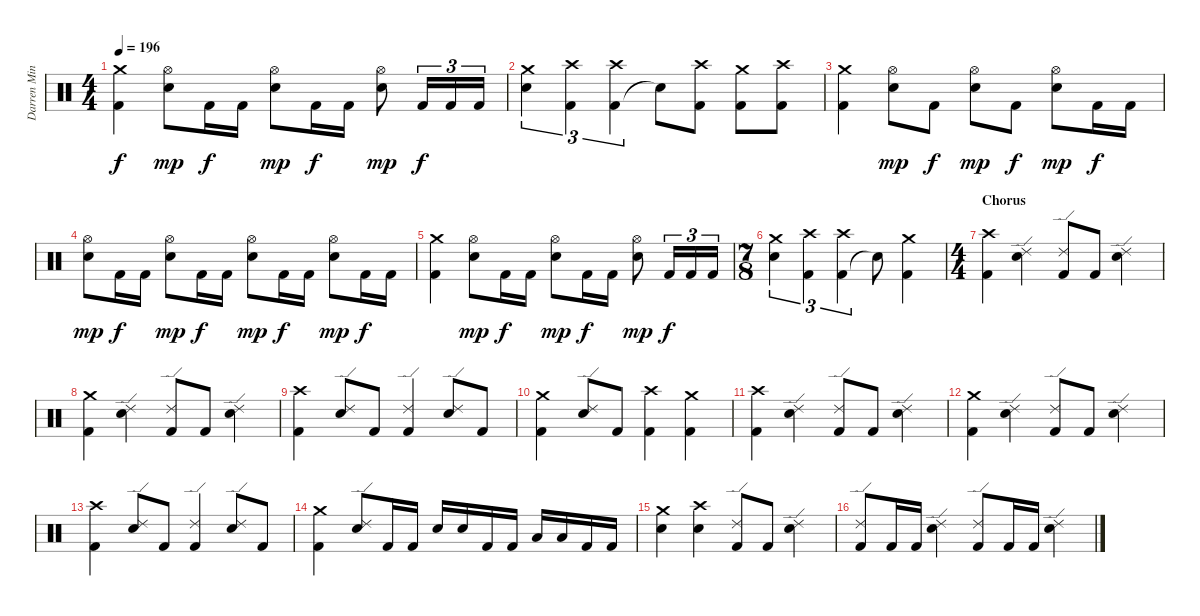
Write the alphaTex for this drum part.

\track ("Darren Minter" "Darren Min") {instrument percussion}
\staff {score}
\articulation defaults
\ts (4 4)
\tempo 196
\clef neutral
\ks c
("Kick (hit) 2" "Crash medium (hit)").4{dy f} ("Hi-Hat (open)" "Snare (hit) 2").8{dy mp} "Kick (hit) 2".16{dy f} "Kick (hit) 2".16 ("Hi-Hat (open)" "Snare (hit) 2").8{dy mp} "Kick (hit) 2".16{dy f} "Kick (hit) 2".16 ("Hi-Hat (open)" "Snare (hit) 2").8{dy mp} "Kick (hit) 2".16{tu (3 2) dy f} "Kick (hit) 2".16{tu (3 2)} "Kick (hit) 2".16{tu (3 2)} |
("Crash medium (hit)" "Snare (hit) 2").4{tu (3 2)} ("Kick (hit) 2" "Crash high (hit)").4{tu (3 2)} ("Kick (hit) 2" "Crash high (hit)").4{tu (3 2)} "Snare (hit)"{t}.8 ("Kick (hit) 2" "Crash high (hit)").8 ("Kick (hit) 2" "Crash medium (hit)").8 ("Kick (hit) 2" "Crash high (hit)").8 |
("Kick (hit) 2" "Crash medium (hit)").4 ("Hi-Hat (open)" "Snare (hit) 2").8{dy mp} "Kick (hit) 2".8{dy f} ("Hi-Hat (open)" "Snare (hit) 2").8{dy mp} "Kick (hit) 2".8{dy f} ("Hi-Hat (open)" "Snare (hit) 2").8{dy mp} "Kick (hit) 2".16{dy f} "Kick (hit) 2".16 |
("Hi-Hat (open)" "Snare (hit) 2").8{dy mp} "Kick (hit) 2".16{dy f} "Kick (hit) 2".16 ("Hi-Hat (open)" "Snare (hit) 2").8{dy mp} "Kick (hit) 2".16{dy f} "Kick (hit) 2".16 ("Hi-Hat (open)" "Snare (hit) 2").8{dy mp} "Kick (hit) 2".16{dy f} "Kick (hit) 2".16 ("Hi-Hat (open)" "Snare (hit) 2").8{dy mp} "Kick (hit) 2".16{dy f} "Kick (hit) 2".16 |
("Kick (hit) 2" "Crash medium (hit)").4 ("Hi-Hat (open)" "Snare (hit) 2").8{dy mp} "Kick (hit) 2".16{dy f} "Kick (hit) 2".16 ("Hi-Hat (open)" "Snare (hit) 2").8{dy mp} "Kick (hit) 2".16{dy f} "Kick (hit) 2".16 ("Hi-Hat (open)" "Snare (hit) 2").8{dy mp} "Kick (hit) 2".16{tu (3 2) dy f} "Kick (hit) 2".16{tu (3 2)} "Kick (hit) 2".16{tu (3 2)} |
\ts (7 8)
("Crash medium (hit)" "Snare (hit) 2").4{tu (3 2)} ("Kick (hit) 2" "Crash high (hit)").4{tu (3 2)} ("Kick (hit) 2" "Crash high (hit)").4{tu (3 2)} "Snare (hit)"{t}.8 ("Kick (hit) 2" "Crash medium (hit)").4 |
\ts (4 4)
\section ("" "Chorus")
("Kick (hit) 2" "Crash high (hit)").4 ("Ride (edge) 2" "Snare (hit) 2").4 ("Kick (hit) 2" "Ride (edge) 2").8 "Kick (hit) 2".8 ("Ride (edge) 2" "Snare (hit) 2").4 |
("Kick (hit) 2" "Crash medium (hit)").4 ("Ride (edge) 2" "Snare (hit) 2").4 ("Kick (hit) 2" "Ride (edge) 2").8 "Kick (hit) 2".8 ("Ride (edge) 2" "Snare (hit) 2").4 |
("Kick (hit) 2" "Crash high (hit)").4 ("Ride (edge) 2" "Snare (hit) 2").8 "Kick (hit) 2".8 ("Kick (hit) 2" "Ride (edge) 2").4 ("Ride (edge) 2" "Snare (hit) 2").8 "Kick (hit) 2".8 |
("Kick (hit) 2" "Crash medium (hit)").4 ("Ride (edge) 2" "Snare (hit) 2").8 "Kick (hit) 2".8 ("Kick (hit) 2" "Crash high (hit)").4 ("Kick (hit) 2" "Crash medium (hit)").4 |
("Kick (hit) 2" "Crash high (hit)").4 ("Ride (edge) 2" "Snare (hit) 2").4 ("Kick (hit) 2" "Ride (edge) 2").8 "Kick (hit) 2".8 ("Ride (edge) 2" "Snare (hit) 2").4 |
("Kick (hit) 2" "Crash medium (hit)").4 ("Ride (edge) 2" "Snare (hit) 2").4 ("Kick (hit) 2" "Ride (edge) 2").8 "Kick (hit) 2".8 ("Ride (edge) 2" "Snare (hit) 2").4 |
("Kick (hit) 2" "Crash high (hit)").4 ("Ride (edge) 2" "Snare (hit) 2").8 "Kick (hit) 2".8 ("Kick (hit) 2" "Ride (edge) 2").4 ("Ride (edge) 2" "Snare (hit) 2").8 "Kick (hit) 2".8 |
("Kick (hit) 2" "Crash medium (hit)").4 ("Ride (edge) 2" "Snare (hit) 2").8 "Kick (hit) 2".16 "Kick (hit) 2".16 "Snare (hit) 2".16 "Snare (hit) 2".16 "Kick (hit) 2".16 "Kick (hit) 2".16 "Low Tom (hit)".16 "Low Tom (hit)".16 "Kick (hit) 2".16 "Kick (hit) 2".16 |
("Crash medium (hit)" "Snare (hit) 2").4 ("Crash high (hit)" "Snare (hit) 2").4 ("Kick (hit) 2" "Ride (edge) 2").8 "Kick (hit) 2".8 ("Ride (edge) 2" "Snare (hit) 2").4 |
("Kick (hit) 2" "Ride (edge) 2").8 "Kick (hit) 2".16 "Kick (hit) 2".16 ("Ride (edge) 2" "Snare (hit) 2").4 ("Kick (hit) 2" "Ride (edge) 2").8 "Kick (hit) 2".16 "Kick (hit) 2".16 ("Ride (edge) 2" "Snare (hit) 2").4
